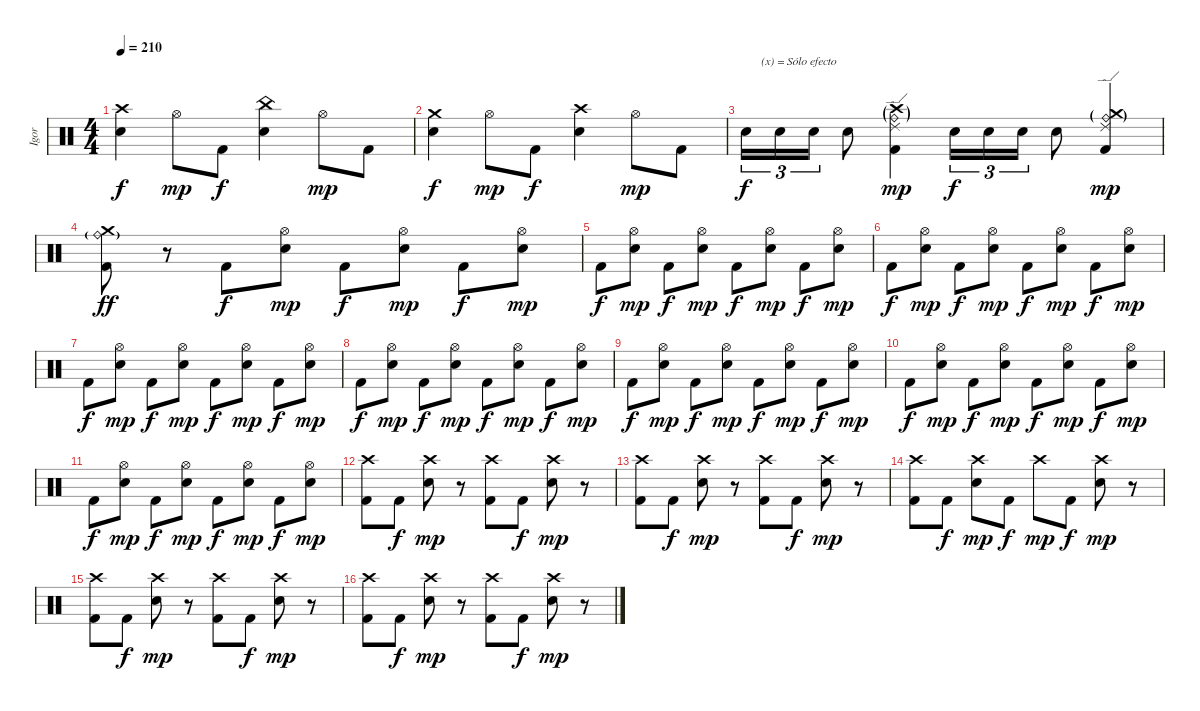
\track ("Igor" "Igor") {instrument percussion}
\staff {score}
\articulation defaults
\ts (4 4)
\tempo 210
\clef neutral
\ks c
("Crash high (hit)" "Electric Snare (hit)").4{dy f} "Hi-Hat (open)".8{dy mp} "Kick (hit) 2".8{dy f} ("China (hit)" "Electric Snare (hit)").4 "Hi-Hat (open)".8{dy mp} "Kick (hit) 2".8 |
("Crash medium (hit)" "Electric Snare (hit)").4{dy f} "Hi-Hat (open)".8{dy mp} "Kick (hit) 2".8{dy f} ("Crash high (hit)" "Electric Snare (hit)").4 "Hi-Hat (open)".8{dy mp} "Kick (hit) 2".8 |
"Electric Snare (hit)".16{tu (3 2) txt "     (x) = Sólo efecto" dy f} "Electric Snare (hit)".16{tu (3 2)} "Electric Snare (hit)".16{tu (3 2)} "Electric Snare (hit)".8 ("Ride (bell)"{g} "Ride (edge) 2" "Crash high (hit)"{g} "Kick (hit) 2").4{dy mp} "Electric Snare (hit)".16{tu (3 2) dy f} "Electric Snare (hit)".16{tu (3 2)} "Electric Snare (hit)".16{tu (3 2)} "Electric Snare (hit)".8 ("Ride (bell)"{g} "Ride (edge) 2" "Crash medium (hit)"{g} "Kick (hit) 2").4{dy mp} |
("Crash medium (hit)" "Ride (bell)"{g} "Kick (hit) 2").8{dy ff} r.8 "Kick (hit) 2".8{dy f} ("Hi-Hat (open)" "Electric Snare (hit)").8{dy mp} "Kick (hit) 2".8{dy f} ("Hi-Hat (open)" "Electric Snare (hit)").8{dy mp} "Kick (hit) 2".8{dy f} ("Hi-Hat (open)" "Electric Snare (hit)").8{dy mp} |
"Kick (hit) 2".8{dy f} ("Hi-Hat (open)" "Electric Snare (hit)").8{dy mp} "Kick (hit) 2".8{dy f} ("Hi-Hat (open)" "Electric Snare (hit)").8{dy mp} "Kick (hit) 2".8{dy f} ("Hi-Hat (open)" "Electric Snare (hit)").8{dy mp} "Kick (hit) 2".8{dy f} ("Hi-Hat (open)" "Electric Snare (hit)").8{dy mp} |
"Kick (hit) 2".8{dy f} ("Hi-Hat (open)" "Electric Snare (hit)").8{dy mp} "Kick (hit) 2".8{dy f} ("Hi-Hat (open)" "Electric Snare (hit)").8{dy mp} "Kick (hit) 2".8{dy f} ("Hi-Hat (open)" "Electric Snare (hit)").8{dy mp} "Kick (hit) 2".8{dy f} ("Hi-Hat (open)" "Electric Snare (hit)").8{dy mp} |
"Kick (hit) 2".8{dy f} ("Hi-Hat (open)" "Electric Snare (hit)").8{dy mp} "Kick (hit) 2".8{dy f} ("Hi-Hat (open)" "Electric Snare (hit)").8{dy mp} "Kick (hit) 2".8{dy f} ("Hi-Hat (open)" "Electric Snare (hit)").8{dy mp} "Kick (hit) 2".8{dy f} ("Hi-Hat (open)" "Electric Snare (hit)").8{dy mp} |
"Kick (hit) 2".8{dy f} ("Hi-Hat (open)" "Electric Snare (hit)").8{dy mp} "Kick (hit) 2".8{dy f} ("Hi-Hat (open)" "Electric Snare (hit)").8{dy mp} "Kick (hit) 2".8{dy f} ("Hi-Hat (open)" "Electric Snare (hit)").8{dy mp} "Kick (hit) 2".8{dy f} ("Hi-Hat (open)" "Electric Snare (hit)").8{dy mp} |
"Kick (hit) 2".8{dy f} ("Hi-Hat (open)" "Electric Snare (hit)").8{dy mp} "Kick (hit) 2".8{dy f} ("Hi-Hat (open)" "Electric Snare (hit)").8{dy mp} "Kick (hit) 2".8{dy f} ("Hi-Hat (open)" "Electric Snare (hit)").8{dy mp} "Kick (hit) 2".8{dy f} ("Hi-Hat (open)" "Electric Snare (hit)").8{dy mp} |
"Kick (hit) 2".8{dy f} ("Hi-Hat (open)" "Electric Snare (hit)").8{dy mp} "Kick (hit) 2".8{dy f} ("Hi-Hat (open)" "Electric Snare (hit)").8{dy mp} "Kick (hit) 2".8{dy f} ("Hi-Hat (open)" "Electric Snare (hit)").8{dy mp} "Kick (hit) 2".8{dy f} ("Hi-Hat (open)" "Electric Snare (hit)").8{dy mp} |
"Kick (hit) 2".8{dy f} ("Hi-Hat (open)" "Electric Snare (hit)").8{dy mp} "Kick (hit) 2".8{dy f} ("Hi-Hat (open)" "Electric Snare (hit)").8{dy mp} "Kick (hit) 2".8{dy f} ("Hi-Hat (open)" "Electric Snare (hit)").8{dy mp} "Kick (hit) 2".8{dy f} ("Hi-Hat (open)" "Electric Snare (hit)").8{dy mp} |
("Crash high (hit)" "Kick (hit) 2").8 "Kick (hit) 2".8{dy f} ("Crash high (hit)" "Electric Snare (hit)").8{dy mp} r.8 ("Crash high (hit)" "Kick (hit) 2").8 "Kick (hit) 2".8{dy f} ("Crash high (hit)" "Electric Snare (hit)").8{dy mp} r.8 |
("Crash high (hit)" "Kick (hit) 2").8 "Kick (hit) 2".8{dy f} ("Crash high (hit)" "Electric Snare (hit)").8{dy mp} r.8 ("Crash high (hit)" "Kick (hit) 2").8 "Kick (hit) 2".8{dy f} ("Crash high (hit)" "Electric Snare (hit)").8{dy mp} r.8 |
("Crash high (hit)" "Kick (hit) 2").8 "Kick (hit) 2".8{dy f} ("Crash high (hit)" "Electric Snare (hit)").8{dy mp} "Kick (hit) 2".8{dy f} "Crash high (hit)".8{dy mp} "Kick (hit) 2".8{dy f} ("Crash high (hit)" "Electric Snare (hit)").8{dy mp} r.8 |
("Crash high (hit)" "Kick (hit) 2").8 "Kick (hit) 2".8{dy f} ("Crash high (hit)" "Electric Snare (hit)").8{dy mp} r.8 ("Crash high (hit)" "Kick (hit) 2").8 "Kick (hit) 2".8{dy f} ("Crash high (hit)" "Electric Snare (hit)").8{dy mp} r.8 |
("Crash high (hit)" "Kick (hit) 2").8 "Kick (hit) 2".8{dy f} ("Crash high (hit)" "Electric Snare (hit)").8{dy mp} r.8 ("Crash high (hit)" "Kick (hit) 2").8 "Kick (hit) 2".8{dy f} ("Crash high (hit)" "Electric Snare (hit)").8{dy mp} r.8
